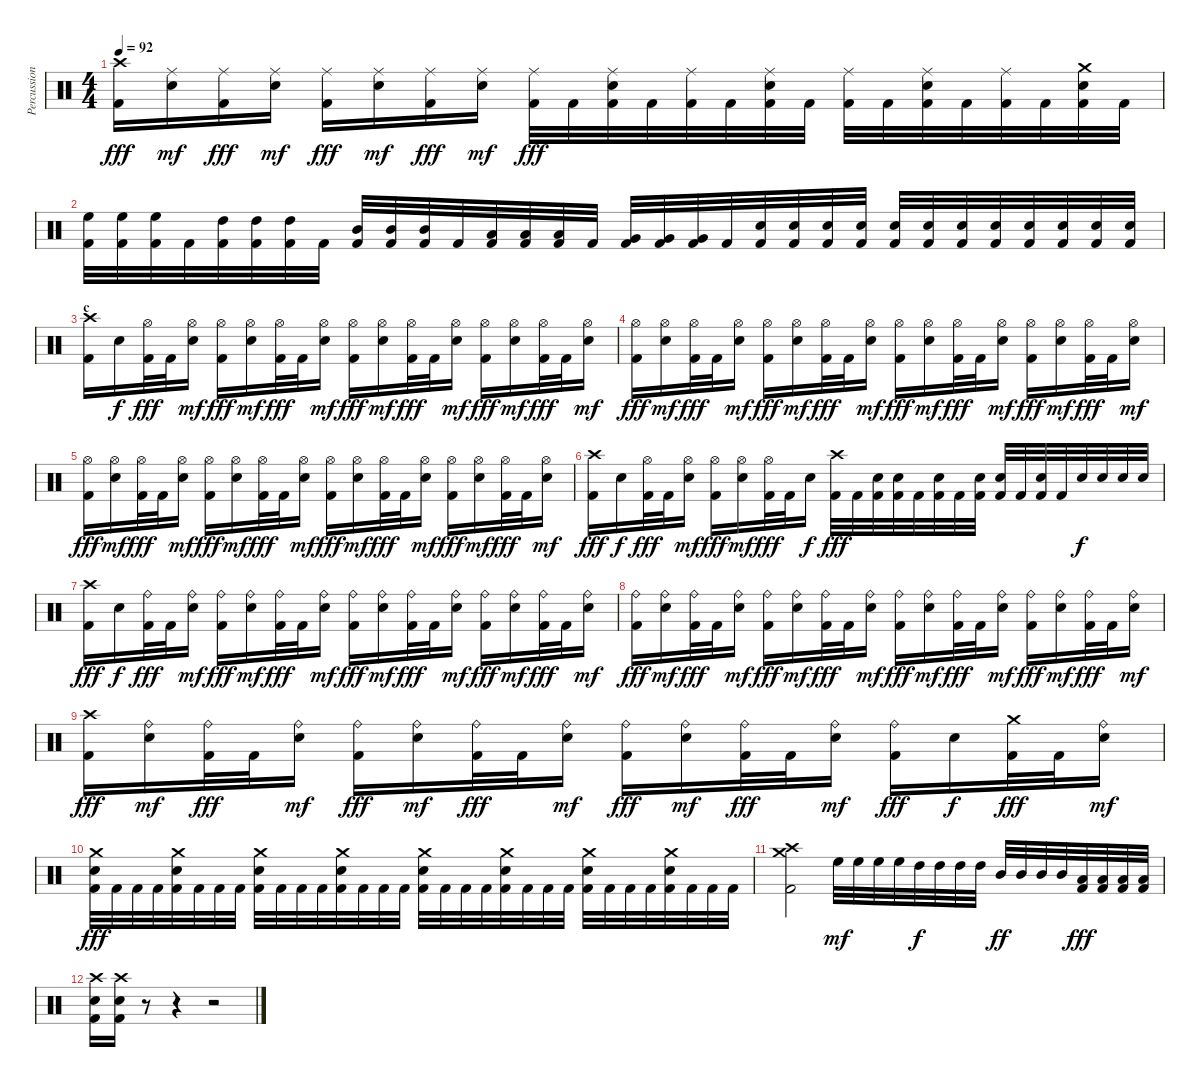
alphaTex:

\track ("Percussion" "Percussion") {instrument percussion}
\staff {score}
\articulation defaults
\ts (4 4)
\tempo 92
\clef neutral
\ks c
("Crash high (hit)" "Kick (hit) 2").16{dy fff} ("Ride (middle)" "Electric Snare (hit)").16{dy mf} ("Ride (middle)" "Kick (hit) 2").16{dy fff} ("Ride (middle)" "Electric Snare (hit)").16{dy mf} ("Ride (middle)" "Kick (hit) 2").16{dy fff} ("Ride (middle)" "Electric Snare (hit)").16{dy mf} ("Ride (middle)" "Kick (hit) 2").16{dy fff} ("Ride (middle)" "Electric Snare (hit)").16{dy mf} ("Ride (middle)" "Kick (hit) 2").32{dy fff} "Kick (hit) 2".32 ("Ride (middle)" "Electric Snare (hit)" "Kick (hit) 2").32 "Kick (hit) 2".32 ("Ride (middle)" "Kick (hit) 2").32 "Kick (hit) 2".32 ("Ride (middle)" "Electric Snare (hit)" "Kick (hit) 2").32 "Kick (hit) 2".32 ("Ride (middle)" "Kick (hit) 2").32 "Kick (hit) 2".32 ("Ride (middle)" "Electric Snare (hit)" "Kick (hit) 2").32 "Kick (hit) 2".32 ("Ride (middle)" "Kick (hit) 2").32 "Kick (hit) 2".32 ("Crash medium (hit)" "Electric Snare (hit)" "Kick (hit) 2").32 "Kick (hit) 2".32 |
("High Floor Tom (hit)" "Kick (hit) 2").32 ("High Floor Tom (hit)" "Kick (hit) 2").32 ("High Floor Tom (hit)" "Kick (hit) 2").32 "Kick (hit) 2".32 ("High Tom (hit)" "Kick (hit) 2").32 ("High Tom (hit)" "Kick (hit) 2").32 ("High Tom (hit)" "Kick (hit) 2").32 "Kick (hit) 2".32 ("Mid Tom (hit)" "Kick (hit) 2").32 ("Mid Tom (hit)" "Kick (hit) 2").32 ("Mid Tom (hit)" "Kick (hit) 2").32 "Kick (hit) 2".32 ("Low Tom (hit)" "Kick (hit) 2").32 ("Low Tom (hit)" "Kick (hit) 2").32 ("Low Tom (hit)" "Kick (hit) 2").32 "Kick (hit) 2".32 ("Very Low Tom (hit)" "Kick (hit) 2").32 ("Very Low Tom (hit)" "Kick (hit) 2").32 ("Very Low Tom (hit)" "Kick (hit) 2").32 "Kick (hit) 2".32 ("Electric Snare (hit)" "Kick (hit) 2").32 ("Electric Snare (hit)" "Kick (hit) 2").32 ("Electric Snare (hit)" "Kick (hit) 2").32 ("Electric Snare (hit)" "Kick (hit) 2").32 ("Electric Snare (hit)" "Kick (hit) 2").32 ("Electric Snare (hit)" "Kick (hit) 2").32 ("Electric Snare (hit)" "Kick (hit) 2").32 ("Electric Snare (hit)" "Kick (hit) 2").32 ("Electric Snare (hit)" "Kick (hit) 2").32 ("Electric Snare (hit)" "Kick (hit) 2").32 ("Electric Snare (hit)" "Kick (hit) 2").32 ("Electric Snare (hit)" "Kick (hit) 2").32 |
\section ("" "c")
("Crash high (hit)" "Kick (hit) 2").16 "Electric Snare (hit)".16{dy f} ("Hi-Hat (open)" "Kick (hit) 2").32{dy fff} "Kick (hit) 2".32 ("Hi-Hat (open)" "Electric Snare (hit)").16{dy mf} ("Hi-Hat (open)" "Kick (hit) 2").16{dy fff} ("Hi-Hat (open)" "Electric Snare (hit)").16{dy mf} ("Hi-Hat (open)" "Kick (hit) 2").32{dy fff} "Kick (hit) 2".32 ("Hi-Hat (open)" "Electric Snare (hit)").16{dy mf} ("Hi-Hat (open)" "Kick (hit) 2").16{dy fff} ("Hi-Hat (open)" "Electric Snare (hit)").16{dy mf} ("Hi-Hat (open)" "Kick (hit) 2").32{dy fff} "Kick (hit) 2".32 ("Hi-Hat (open)" "Electric Snare (hit)").16{dy mf} ("Hi-Hat (open)" "Kick (hit) 2").16{dy fff} ("Hi-Hat (open)" "Electric Snare (hit)").16{dy mf} ("Hi-Hat (open)" "Kick (hit) 2").32{dy fff} "Kick (hit) 2".32 ("Hi-Hat (open)" "Electric Snare (hit)").16{dy mf} |
("Hi-Hat (open)" "Kick (hit) 2").16{dy fff} ("Hi-Hat (open)" "Electric Snare (hit)").16{dy mf} ("Hi-Hat (open)" "Kick (hit) 2").32{dy fff} "Kick (hit) 2".32 ("Hi-Hat (open)" "Electric Snare (hit)").16{dy mf} ("Hi-Hat (open)" "Kick (hit) 2").16{dy fff} ("Hi-Hat (open)" "Electric Snare (hit)").16{dy mf} ("Hi-Hat (open)" "Kick (hit) 2").32{dy fff} "Kick (hit) 2".32 ("Hi-Hat (open)" "Electric Snare (hit)").16{dy mf} ("Hi-Hat (open)" "Kick (hit) 2").16{dy fff} ("Hi-Hat (open)" "Electric Snare (hit)").16{dy mf} ("Hi-Hat (open)" "Kick (hit) 2").32{dy fff} "Kick (hit) 2".32 ("Hi-Hat (open)" "Electric Snare (hit)").16{dy mf} ("Hi-Hat (open)" "Kick (hit) 2").16{dy fff} ("Hi-Hat (open)" "Electric Snare (hit)").16{dy mf} ("Hi-Hat (open)" "Kick (hit) 2").32{dy fff} "Kick (hit) 2".32 ("Hi-Hat (open)" "Electric Snare (hit)").16{dy mf} |
("Hi-Hat (open)" "Kick (hit) 2").16{dy fff} ("Hi-Hat (open)" "Electric Snare (hit)").16{dy mf} ("Hi-Hat (open)" "Kick (hit) 2").32{dy fff} "Kick (hit) 2".32 ("Hi-Hat (open)" "Electric Snare (hit)").16{dy mf} ("Hi-Hat (open)" "Kick (hit) 2").16{dy fff} ("Hi-Hat (open)" "Electric Snare (hit)").16{dy mf} ("Hi-Hat (open)" "Kick (hit) 2").32{dy fff} "Kick (hit) 2".32 ("Hi-Hat (open)" "Electric Snare (hit)").16{dy mf} ("Hi-Hat (open)" "Kick (hit) 2").16{dy fff} ("Hi-Hat (open)" "Electric Snare (hit)").16{dy mf} ("Hi-Hat (open)" "Kick (hit) 2").32{dy fff} "Kick (hit) 2".32 ("Hi-Hat (open)" "Electric Snare (hit)").16{dy mf} ("Hi-Hat (open)" "Kick (hit) 2").16{dy fff} ("Hi-Hat (open)" "Electric Snare (hit)").16{dy mf} ("Hi-Hat (open)" "Kick (hit) 2").32{dy fff} "Kick (hit) 2".32 ("Hi-Hat (open)" "Electric Snare (hit)").16{dy mf} |
("Crash high (hit)" "Kick (hit) 2").16{dy fff} "Electric Snare (hit)".16{dy f} ("Hi-Hat (open)" "Kick (hit) 2").32{dy fff} "Kick (hit) 2".32 ("Hi-Hat (open)" "Electric Snare (hit)").16{dy mf} ("Hi-Hat (open)" "Kick (hit) 2").16{dy fff} ("Hi-Hat (open)" "Electric Snare (hit)").16{dy mf} ("Hi-Hat (open)" "Kick (hit) 2").32{dy fff} "Kick (hit) 2".32 "Electric Snare (hit)".16{dy f} ("Crash high (hit)" "Kick (hit) 2").32{dy fff} "Kick (hit) 2".32 ("Electric Snare (hit)" "Kick (hit) 2").32 ("Electric Snare (hit)" "Kick (hit) 2").32 "Kick (hit) 2".32 ("Electric Snare (hit)" "Kick (hit) 2").32 "Kick (hit) 2".32 ("Electric Snare (hit)" "Kick (hit) 2").32 ("Electric Snare (hit)" "Kick (hit) 2").32 "Kick (hit) 2".32 ("Electric Snare (hit)" "Kick (hit) 2").32 "Kick (hit) 2".32 "Electric Snare (hit)".32{dy f} "Electric Snare (hit)".32 "Electric Snare (hit)".32 "Electric Snare (hit)".32 |
("Crash high (hit)" "Kick (hit) 2").16{dy fff} "Electric Snare (hit)".16{dy f} ("Ride (bell)" "Kick (hit) 2").32{dy fff} "Kick (hit) 2".32 ("Ride (bell)" "Electric Snare (hit)").16{dy mf} ("Ride (bell)" "Kick (hit) 2").16{dy fff} ("Ride (bell)" "Electric Snare (hit)").16{dy mf} ("Ride (bell)" "Kick (hit) 2").32{dy fff} "Kick (hit) 2".32 ("Ride (bell)" "Electric Snare (hit)").16{dy mf} ("Ride (bell)" "Kick (hit) 2").16{dy fff} ("Ride (bell)" "Electric Snare (hit)").16{dy mf} ("Ride (bell)" "Kick (hit) 2").32{dy fff} "Kick (hit) 2".32 ("Ride (bell)" "Electric Snare (hit)").16{dy mf} ("Ride (bell)" "Kick (hit) 2").16{dy fff} ("Ride (bell)" "Electric Snare (hit)").16{dy mf} ("Ride (bell)" "Kick (hit) 2").32{dy fff} "Kick (hit) 2".32 ("Ride (bell)" "Electric Snare (hit)").16{dy mf} |
("Ride (bell)" "Kick (hit) 2").16{dy fff} ("Ride (bell)" "Electric Snare (hit)").16{dy mf} ("Ride (bell)" "Kick (hit) 2").32{dy fff} "Kick (hit) 2".32 ("Ride (bell)" "Electric Snare (hit)").16{dy mf} ("Ride (bell)" "Kick (hit) 2").16{dy fff} ("Ride (bell)" "Electric Snare (hit)").16{dy mf} ("Ride (bell)" "Kick (hit) 2").32{dy fff} "Kick (hit) 2".32 ("Ride (bell)" "Electric Snare (hit)").16{dy mf} ("Ride (bell)" "Kick (hit) 2").16{dy fff} ("Ride (bell)" "Electric Snare (hit)").16{dy mf} ("Ride (bell)" "Kick (hit) 2").32{dy fff} "Kick (hit) 2".32 ("Ride (bell)" "Electric Snare (hit)").16{dy mf} ("Ride (bell)" "Kick (hit) 2").16{dy fff} ("Ride (bell)" "Electric Snare (hit)").16{dy mf} ("Ride (bell)" "Kick (hit) 2").32{dy fff} "Kick (hit) 2".32 ("Ride (bell)" "Electric Snare (hit)").16{dy mf} |
("Crash high (hit)" "Kick (hit) 2").16{dy fff} ("Ride (bell)" "Electric Snare (hit)").16{dy mf} ("Ride (bell)" "Kick (hit) 2").32{dy fff} "Kick (hit) 2".32 ("Ride (bell)" "Electric Snare (hit)").16{dy mf} ("Ride (bell)" "Kick (hit) 2").16{dy fff} ("Ride (bell)" "Electric Snare (hit)").16{dy mf} ("Ride (bell)" "Kick (hit) 2").32{dy fff} "Kick (hit) 2".32 ("Ride (bell)" "Electric Snare (hit)").16{dy mf} ("Ride (bell)" "Kick (hit) 2").16{dy fff} ("Ride (bell)" "Electric Snare (hit)").16{dy mf} ("Ride (bell)" "Kick (hit) 2").32{dy fff} "Kick (hit) 2".32 ("Ride (bell)" "Electric Snare (hit)").16{dy mf} ("Ride (bell)" "Kick (hit) 2").16{dy fff} "Electric Snare (hit)".16{dy f} ("Crash medium (hit)" "Kick (hit) 2").32{dy fff} "Kick (hit) 2".32 ("Ride (bell)" "Electric Snare (hit)").16{dy mf} |
("Crash medium (hit)" "Electric Snare (hit)" "Kick (hit) 2").32{dy fff} "Kick (hit) 2".32 "Kick (hit) 2".32 "Kick (hit) 2".32 ("Crash medium (hit)" "Electric Snare (hit)" "Kick (hit) 2").32 "Kick (hit) 2".32 "Kick (hit) 2".32 "Kick (hit) 2".32 ("Crash medium (hit)" "Electric Snare (hit)" "Kick (hit) 2").32 "Kick (hit) 2".32 "Kick (hit) 2".32 "Kick (hit) 2".32 ("Crash medium (hit)" "Electric Snare (hit)" "Kick (hit) 2").32 "Kick (hit) 2".32 "Kick (hit) 2".32 "Kick (hit) 2".32 ("Crash medium (hit)" "Electric Snare (hit)" "Kick (hit) 2").32 "Kick (hit) 2".32 "Kick (hit) 2".32 "Kick (hit) 2".32 ("Crash medium (hit)" "Electric Snare (hit)" "Kick (hit) 2").32 "Kick (hit) 2".32 "Kick (hit) 2".32 "Kick (hit) 2".32 ("Crash medium (hit)" "Electric Snare (hit)" "Kick (hit) 2").32 "Kick (hit) 2".32 "Kick (hit) 2".32 "Kick (hit) 2".32 ("Crash medium (hit)" "Electric Snare (hit)" "Kick (hit) 2").32 "Kick (hit) 2".32 "Kick (hit) 2".32 "Kick (hit) 2".32 |
("Crash high (hit)" "Crash medium (hit)" "Kick (hit) 2").2 "High Floor Tom (hit)".32{dy mf} "High Floor Tom (hit)".32 "High Floor Tom (hit)".32 "High Floor Tom (hit)".32 "High Tom (hit)".32{dy f} "High Tom (hit)".32 "High Tom (hit)".32 "High Tom (hit)".32 "Mid Tom (hit)".32{dy ff} "Mid Tom (hit)".32 "Mid Tom (hit)".32 "Mid Tom (hit)".32 ("Low Tom (hit)" "Kick (hit) 2").32{dy fff} ("Low Tom (hit)" "Kick (hit) 2").32 ("Low Tom (hit)" "Kick (hit) 2").32 ("Low Tom (hit)" "Kick (hit) 2").32 |
("Crash high (hit)" "Electric Snare (hit)" "Kick (hit) 2").16 ("Crash high (hit)" "Electric Snare (hit)" "Kick (hit) 2").16 r.8 r.4 r.2
